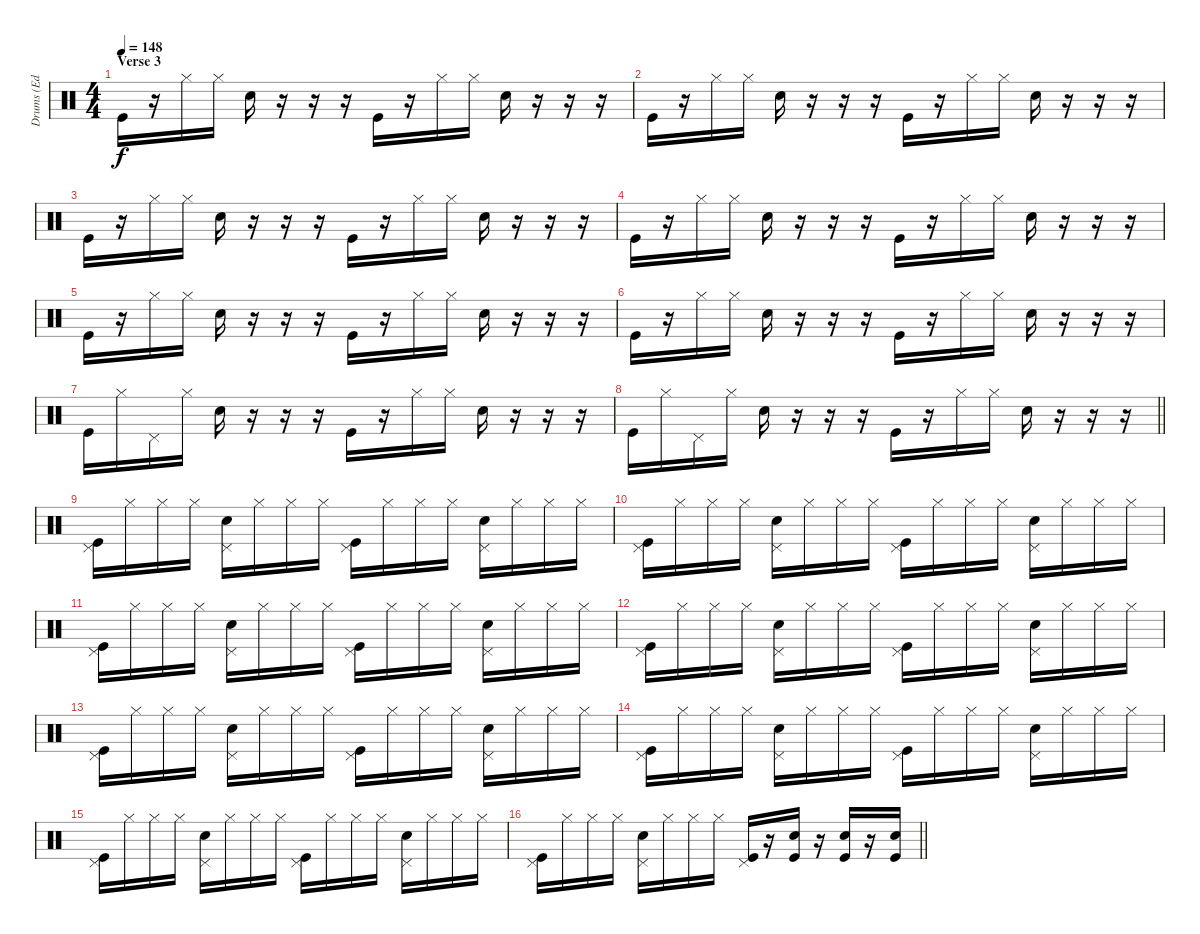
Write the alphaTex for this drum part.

\track ("Drums (Ed Lay)" "Drums (Ed ") {instrument percussion}
\staff {score}
\articulation defaults
\ts (4 4)
\section ("" "Verse 3")
\tempo 148
\clef neutral
\ks c "Kick (hit)".16{dy f}
r.16 "Hi-Hat (closed)".16 "Hi-Hat (closed)".16 "Electric Snare (hit)".16 r.16 r.16 r.16 "Kick (hit)".16 r.16 "Hi-Hat (closed)".16 "Hi-Hat (closed)".16 "Electric Snare (hit)".16 r.16 r.16 r.16 |
"Kick (hit)".16 r.16 "Hi-Hat (closed)".16 "Hi-Hat (closed)".16 "Electric Snare (hit)".16 r.16 r.16 r.16 "Kick (hit)".16 r.16 "Hi-Hat (closed)".16 "Hi-Hat (closed)".16 "Electric Snare (hit)".16 r.16 r.16 r.16 |
"Kick (hit)".16 r.16 "Hi-Hat (closed)".16 "Hi-Hat (closed)".16 "Electric Snare (hit)".16 r.16 r.16 r.16 "Kick (hit)".16 r.16 "Hi-Hat (closed)".16 "Hi-Hat (closed)".16 "Electric Snare (hit)".16 r.16 r.16 r.16 |
"Kick (hit)".16 r.16 "Hi-Hat (closed)".16 "Hi-Hat (closed)".16 "Electric Snare (hit)".16 r.16 r.16 r.16 "Kick (hit)".16 r.16 "Hi-Hat (closed)".16 "Hi-Hat (closed)".16 "Electric Snare (hit)".16 r.16 r.16 r.16 |
"Kick (hit)".16 r.16 "Hi-Hat (closed)".16 "Hi-Hat (closed)".16 "Electric Snare (hit)".16 r.16 r.16 r.16 "Kick (hit)".16 r.16 "Hi-Hat (closed)".16 "Hi-Hat (closed)".16 "Electric Snare (hit)".16 r.16 r.16 r.16 |
"Kick (hit)".16 r.16 "Hi-Hat (closed)".16 "Hi-Hat (closed)".16 "Electric Snare (hit)".16 r.16 r.16 r.16 "Kick (hit)".16 r.16 "Hi-Hat (closed)".16 "Hi-Hat (closed)".16 "Electric Snare (hit)".16 r.16 r.16 r.16 |
"Kick (hit)".16 "Hi-Hat (closed)".16 "Pedal Hi-Hat (hit)".16 "Hi-Hat (closed)".16 "Electric Snare (hit)".16 r.16 r.16 r.16 "Kick (hit)".16 r.16 "Hi-Hat (closed)".16 "Hi-Hat (closed)".16 "Electric Snare (hit)".16 r.16 r.16 r.16 |
\barLineRight lightlight "Kick (hit)".16 "Hi-Hat (closed)".16 "Pedal Hi-Hat (hit)".16 "Hi-Hat (closed)".16 "Electric Snare (hit)".16
r.16 r.16 r.16 "Kick (hit)".16 r.16 "Hi-Hat (closed)".16 "Hi-Hat (closed)".16 "Electric Snare (hit)".16 r.16 r.16 r.16 |
("Pedal Hi-Hat (hit)" "Kick (hit)").16 "Hi-Hat (closed)".16 "Hi-Hat (closed)".16 "Hi-Hat (closed)".16 ("Pedal Hi-Hat (hit)" "Electric Snare (hit)").16 "Hi-Hat (closed)".16 "Hi-Hat (closed)".16 "Hi-Hat (closed)".16 ("Pedal Hi-Hat (hit)" "Kick (hit)").16 "Hi-Hat (closed)".16 "Hi-Hat (closed)".16 "Hi-Hat (closed)".16 ("Pedal Hi-Hat (hit)" "Electric Snare (hit)").16 "Hi-Hat (closed)".16 "Hi-Hat (closed)".16 "Hi-Hat (closed)".16 |
("Pedal Hi-Hat (hit)" "Kick (hit)").16 "Hi-Hat (closed)".16 "Hi-Hat (closed)".16 "Hi-Hat (closed)".16 ("Pedal Hi-Hat (hit)" "Electric Snare (hit)").16 "Hi-Hat (closed)".16 "Hi-Hat (closed)".16 "Hi-Hat (closed)".16 ("Pedal Hi-Hat (hit)" "Kick (hit)").16 "Hi-Hat (closed)".16 "Hi-Hat (closed)".16 "Hi-Hat (closed)".16 ("Pedal Hi-Hat (hit)" "Electric Snare (hit)").16 "Hi-Hat (closed)".16 "Hi-Hat (closed)".16 "Hi-Hat (closed)".16 |
("Pedal Hi-Hat (hit)" "Kick (hit)").16 "Hi-Hat (closed)".16 "Hi-Hat (closed)".16 "Hi-Hat (closed)".16 ("Pedal Hi-Hat (hit)" "Electric Snare (hit)").16 "Hi-Hat (closed)".16 "Hi-Hat (closed)".16 "Hi-Hat (closed)".16 ("Pedal Hi-Hat (hit)" "Kick (hit)").16 "Hi-Hat (closed)".16 "Hi-Hat (closed)".16 "Hi-Hat (closed)".16 ("Pedal Hi-Hat (hit)" "Electric Snare (hit)").16 "Hi-Hat (closed)".16 "Hi-Hat (closed)".16 "Hi-Hat (closed)".16 |
("Pedal Hi-Hat (hit)" "Kick (hit)").16 "Hi-Hat (closed)".16 "Hi-Hat (closed)".16 "Hi-Hat (closed)".16 ("Pedal Hi-Hat (hit)" "Electric Snare (hit)").16 "Hi-Hat (closed)".16 "Hi-Hat (closed)".16 "Hi-Hat (closed)".16 ("Pedal Hi-Hat (hit)" "Kick (hit)").16 "Hi-Hat (closed)".16 "Hi-Hat (closed)".16 "Hi-Hat (closed)".16 ("Pedal Hi-Hat (hit)" "Electric Snare (hit)").16 "Hi-Hat (closed)".16 "Hi-Hat (closed)".16 "Hi-Hat (closed)".16 |
("Pedal Hi-Hat (hit)" "Kick (hit)").16 "Hi-Hat (closed)".16 "Hi-Hat (closed)".16 "Hi-Hat (closed)".16 ("Pedal Hi-Hat (hit)" "Electric Snare (hit)").16 "Hi-Hat (closed)".16 "Hi-Hat (closed)".16 "Hi-Hat (closed)".16 ("Pedal Hi-Hat (hit)" "Kick (hit)").16 "Hi-Hat (closed)".16 "Hi-Hat (closed)".16 "Hi-Hat (closed)".16 ("Pedal Hi-Hat (hit)" "Electric Snare (hit)").16 "Hi-Hat (closed)".16 "Hi-Hat (closed)".16 "Hi-Hat (closed)".16 |
("Pedal Hi-Hat (hit)" "Kick (hit)").16 "Hi-Hat (closed)".16 "Hi-Hat (closed)".16 "Hi-Hat (closed)".16 ("Pedal Hi-Hat (hit)" "Electric Snare (hit)").16 "Hi-Hat (closed)".16 "Hi-Hat (closed)".16 "Hi-Hat (closed)".16 ("Pedal Hi-Hat (hit)" "Kick (hit)").16 "Hi-Hat (closed)".16 "Hi-Hat (closed)".16 "Hi-Hat (closed)".16 ("Pedal Hi-Hat (hit)" "Electric Snare (hit)").16 "Hi-Hat (closed)".16 "Hi-Hat (closed)".16 "Hi-Hat (closed)".16 |
("Pedal Hi-Hat (hit)" "Kick (hit)").16 "Hi-Hat (closed)".16 "Hi-Hat (closed)".16 "Hi-Hat (closed)".16 ("Pedal Hi-Hat (hit)" "Electric Snare (hit)").16 "Hi-Hat (closed)".16 "Hi-Hat (closed)".16 "Hi-Hat (closed)".16 ("Pedal Hi-Hat (hit)" "Kick (hit)").16 "Hi-Hat (closed)".16 "Hi-Hat (closed)".16 "Hi-Hat (closed)".16 ("Pedal Hi-Hat (hit)" "Electric Snare (hit)").16 "Hi-Hat (closed)".16 "Hi-Hat (closed)".16 "Hi-Hat (closed)".16 |
\barLineRight lightlight
("Pedal Hi-Hat (hit)" "Kick (hit)").16 "Hi-Hat (closed)".16 "Hi-Hat (closed)".16 "Hi-Hat (closed)".16 ("Pedal Hi-Hat (hit)" "Electric Snare (hit)").16 "Hi-Hat (closed)".16 "Hi-Hat (closed)".16 "Hi-Hat (closed)".16 ("Pedal Hi-Hat (hit)" "Kick (hit)").16 r.16 ("Electric Snare (hit)" "Kick (hit)").16 r.16 ("Electric Snare (hit)" "Kick (hit)").16 r.16 ("Electric Snare (hit)" "Kick (hit)").16
